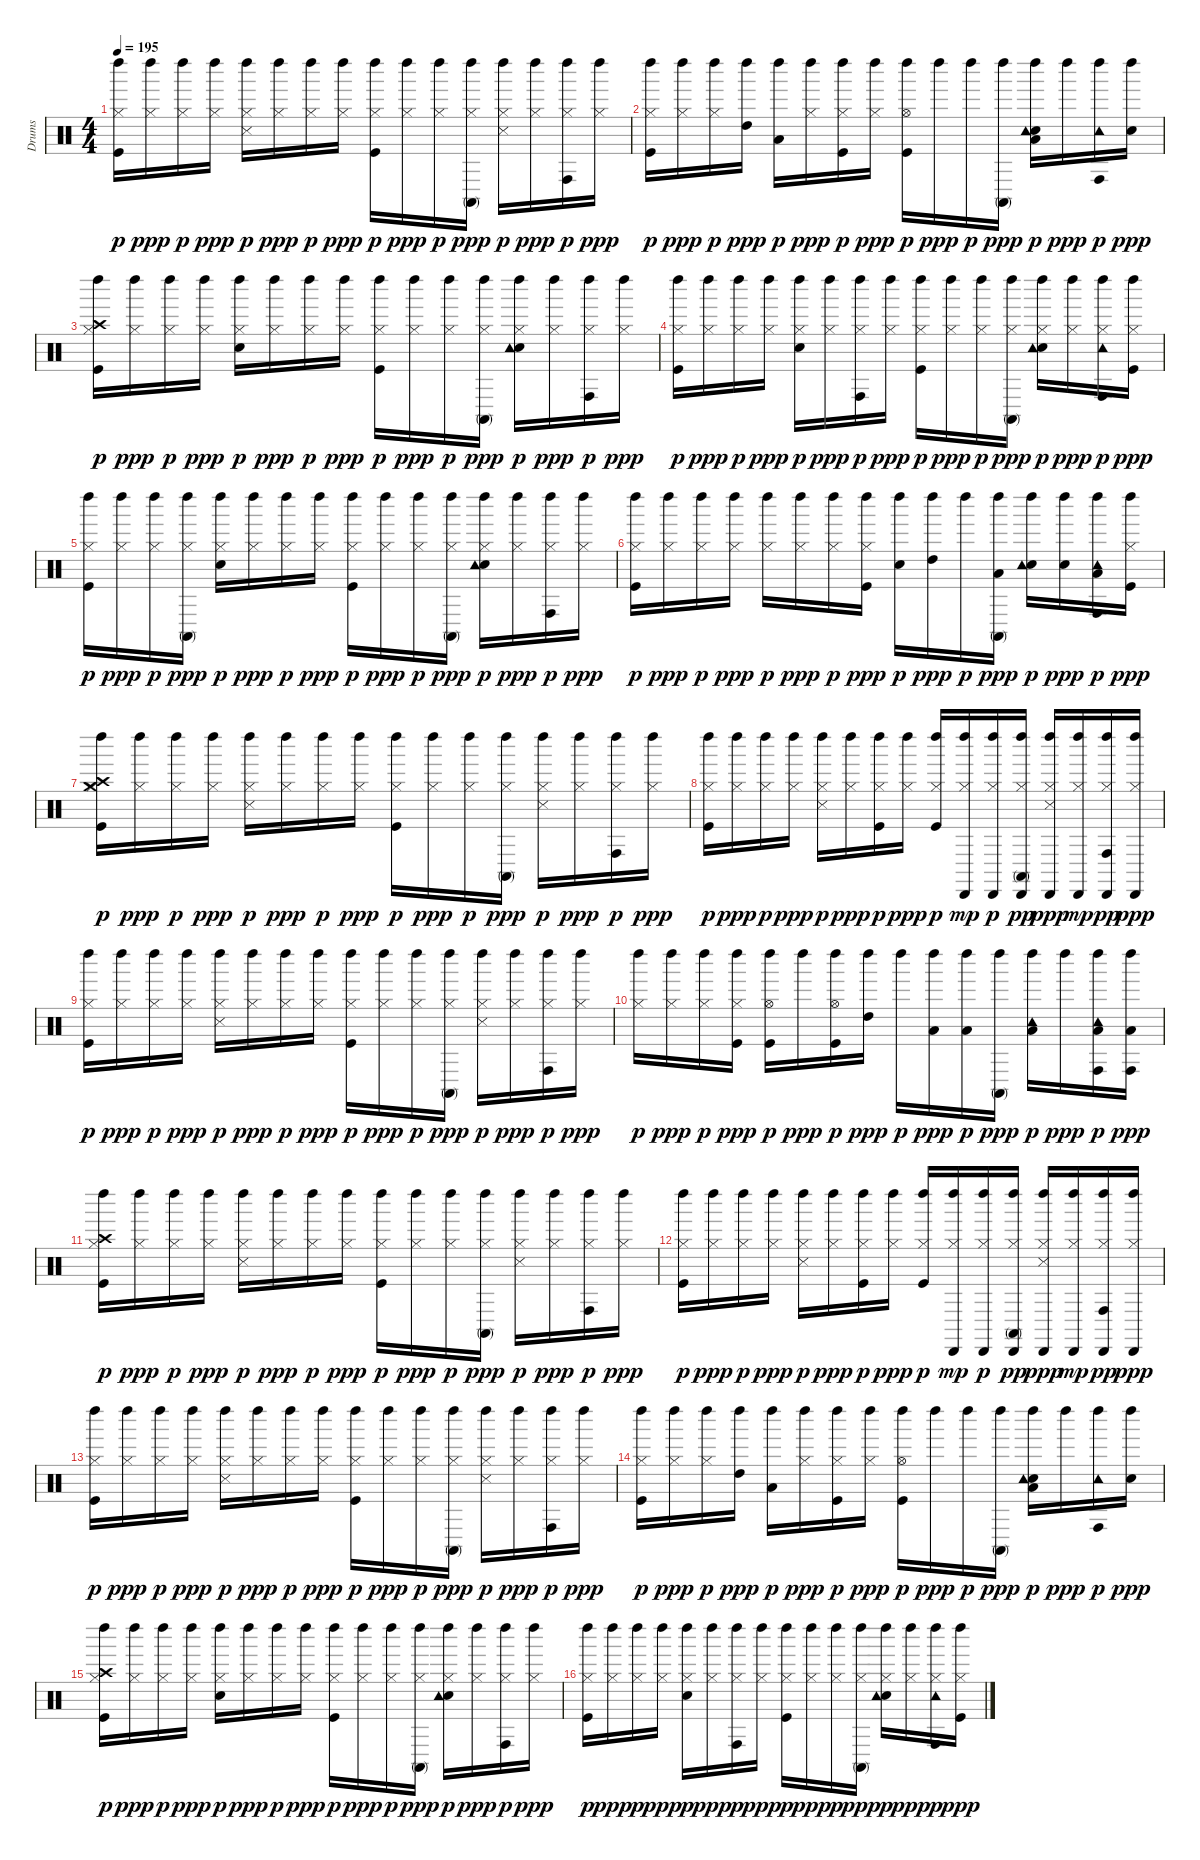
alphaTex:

\track ("Drums" "Drums") {instrument percussion}
\staff {score}
\articulation defaults
\ts (4 4)
\tempo 195
\clef neutral
\ks c
("Kick (hit)" "Hi-Hat (closed)" "Left Maraca (hit)").16{dy p} ("Hi-Hat (closed)" "Left Maraca (hit)").16{dy ppp} ("Hi-Hat (closed)" "Left Maraca (hit)").16{dy p} ("Hi-Hat (closed)" "Left Maraca (hit)").16{dy ppp} ("Hi-Hat (closed)" "Snare (side stick) 3" "Left Maraca (hit)").16{dy p} ("Hi-Hat (closed)" "Left Maraca (hit)").16{dy ppp} ("Hi-Hat (closed)" "Left Maraca (hit)").16{dy p} ("Hi-Hat (closed)" "Left Maraca (hit)").16{dy ppp} ("Kick (hit)" "Hi-Hat (closed)" "Left Maraca (hit)").16{dy p} ("Hi-Hat (closed)" "Left Maraca (hit)").16{dy ppp} ("Hi-Hat (closed)" "Left Maraca (hit)").16{dy p} ("Hi-Hat (closed)" "Conga high (mute)" "Left Maraca (hit)").16{dy ppp} ("Hi-Hat (closed)" "Snare (side stick) 3" "Left Maraca (hit)").16{dy p} ("Hi-Hat (closed)" "Left Maraca (hit)").16{dy ppp} ("Hi-Hat (closed)" "Conga high (hit)" "Left Maraca (hit)").16{dy p} ("Hi-Hat (closed)" "Left Maraca (hit)").16{dy ppp} |
("Kick (hit)" "Hi-Hat (closed)" "Left Maraca (hit)").16{dy p} ("Hi-Hat (closed)" "Left Maraca (hit)").16{dy ppp} ("Hi-Hat (closed)" "Left Maraca (hit)").16{dy p} ("High Tom (hit)" "Left Maraca (hit)").16{dy ppp} ("Low Tom (hit)" "Left Maraca (hit)").16{dy p} ("Hi-Hat (closed)" "Left Maraca (hit)").16{dy ppp} ("Kick (hit)" "Hi-Hat (closed)" "Left Maraca (hit)").16{dy p} ("Hi-Hat (closed)" "Left Maraca (hit)").16{dy ppp} ("Kick (hit)" "Hi-Hat (open)" "Left Maraca (hit)").16{dy p} "Left Maraca (hit)".16{dy ppp} "Left Maraca (hit)".16{dy p} ("Conga high (mute)" "Left Maraca (hit)").16{dy ppp} ("Snare (hit) 2" "Low Floor Tom (hit)" "Tambourine (hit)" "Left Maraca (hit)").16{dy p} "Left Maraca (hit)".16{dy ppp} ("Conga high (hit)" "Tambourine (hit)" "Left Maraca (hit)").16{dy p} ("Snare (hit) 2" "Left Maraca (hit)").16{dy ppp} |
("Kick (hit)" "Hi-Hat (closed)" "Crash high (hit)" "Left Maraca (hit)").16{dy p} ("Hi-Hat (closed)" "Left Maraca (hit)").16{dy ppp} ("Hi-Hat (closed)" "Left Maraca (hit)").16{dy p} ("Hi-Hat (closed)" "Left Maraca (hit)").16{dy ppp} ("Snare (hit) 2" "Hi-Hat (closed)" "Left Maraca (hit)").16{dy p} ("Hi-Hat (closed)" "Left Maraca (hit)").16{dy ppp} ("Hi-Hat (closed)" "Left Maraca (hit)").16{dy p} ("Hi-Hat (closed)" "Left Maraca (hit)").16{dy ppp} ("Kick (hit)" "Hi-Hat (closed)" "Left Maraca (hit)").16{dy p} ("Hi-Hat (closed)" "Left Maraca (hit)").16{dy ppp} ("Hi-Hat (closed)" "Left Maraca (hit)").16{dy p} ("Hi-Hat (closed)" "Conga high (mute)" "Left Maraca (hit)").16{dy ppp} ("Snare (hit) 2" "Hi-Hat (closed)" "Tambourine (hit)" "Left Maraca (hit)").16{dy p} ("Hi-Hat (closed)" "Left Maraca (hit)").16{dy ppp} ("Hi-Hat (closed)" "Conga high (hit)" "Left Maraca (hit)").16{dy p} ("Hi-Hat (closed)" "Left Maraca (hit)").16{dy ppp} |
("Kick (hit)" "Hi-Hat (closed)" "Left Maraca (hit)").16{dy p} ("Hi-Hat (closed)" "Left Maraca (hit)").16{dy ppp} ("Hi-Hat (closed)" "Left Maraca (hit)").16{dy p} ("Hi-Hat (closed)" "Left Maraca (hit)").16{dy ppp} ("Snare (hit) 2" "Hi-Hat (closed)" "Left Maraca (hit)").16{dy p} ("Hi-Hat (closed)" "Left Maraca (hit)").16{dy ppp} ("Hi-Hat (closed)" "Conga high (hit)" "Left Maraca (hit)").16{dy p} ("Hi-Hat (closed)" "Left Maraca (hit)").16{dy ppp} ("Kick (hit)" "Hi-Hat (closed)" "Left Maraca (hit)").16{dy p} ("Hi-Hat (closed)" "Left Maraca (hit)").16{dy ppp} ("Hi-Hat (closed)" "Left Maraca (hit)").16{dy p} ("Hi-Hat (closed)" "Conga high (mute)" "Left Maraca (hit)").16{dy ppp} ("Snare (hit) 2" "Hi-Hat (closed)" "Tambourine (hit)" "Left Maraca (hit)").16{dy p} ("Hi-Hat (closed)" "Left Maraca (hit)").16{dy ppp} ("Hi-Hat (closed)" "Conga high (hit)" "Tambourine (hit)" "Left Maraca (hit)").16{dy p} ("Kick (hit)" "Hi-Hat (closed)" "Left Maraca (hit)").16{dy ppp} |
("Kick (hit)" "Hi-Hat (closed)" "Left Maraca (hit)").16{dy p} ("Hi-Hat (closed)" "Left Maraca (hit)").16{dy ppp} ("Hi-Hat (closed)" "Left Maraca (hit)").16{dy p} ("Hi-Hat (closed)" "Conga high (mute)" "Left Maraca (hit)").16{dy ppp} ("Snare (hit) 2" "Hi-Hat (closed)" "Left Maraca (hit)").16{dy p} ("Hi-Hat (closed)" "Left Maraca (hit)").16{dy ppp} ("Hi-Hat (closed)" "Left Maraca (hit)").16{dy p} ("Hi-Hat (closed)" "Left Maraca (hit)").16{dy ppp} ("Kick (hit)" "Hi-Hat (closed)" "Left Maraca (hit)").16{dy p} ("Hi-Hat (closed)" "Left Maraca (hit)").16{dy ppp} ("Hi-Hat (closed)" "Left Maraca (hit)").16{dy p} ("Hi-Hat (closed)" "Conga high (mute)" "Left Maraca (hit)").16{dy ppp} ("Snare (hit) 2" "Hi-Hat (closed)" "Tambourine (hit)" "Left Maraca (hit)").16{dy p} ("Hi-Hat (closed)" "Left Maraca (hit)").16{dy ppp} ("Hi-Hat (closed)" "Conga high (hit)" "Left Maraca (hit)").16{dy p} ("Hi-Hat (closed)" "Left Maraca (hit)").16{dy ppp} |
("Kick (hit)" "Hi-Hat (closed)" "Left Maraca (hit)").16{dy p} ("Hi-Hat (closed)" "Left Maraca (hit)").16{dy ppp} ("Hi-Hat (closed)" "Left Maraca (hit)").16{dy p} ("Hi-Hat (closed)" "Left Maraca (hit)").16{dy ppp} ("Hi-Hat (closed)" "Left Maraca (hit)").16{dy p} ("Hi-Hat (closed)" "Left Maraca (hit)").16{dy ppp} ("Hi-Hat (closed)" "Left Maraca (hit)").16{dy p} ("Kick (hit)" "Hi-Hat (closed)" "Left Maraca (hit)").16{dy ppp} ("Snare (hit) 2" "Left Maraca (hit)").16{dy p} ("High Tom (hit)" "Left Maraca (hit)").16{dy ppp} "Left Maraca (hit)".16{dy p} ("Low Tom (hit)" "Conga high (mute)" "Left Maraca (hit)").16{dy ppp} ("Snare (hit) 2" "Tambourine (hit)" "Left Maraca (hit)").16{dy p} ("Snare (hit) 2" "Left Maraca (hit)").16{dy ppp} ("Low Floor Tom (hit)" "Conga high (hit)" "Tambourine (hit)" "Left Maraca (hit)").16{dy p} ("Kick (hit)" "Hi-Hat (closed)" "Left Maraca (hit)").16{dy ppp} |
("Crash medium (hit)" "Kick (hit)" "Hi-Hat (closed)" "Crash high (hit)" "Left Maraca (hit)").16{dy p} ("Hi-Hat (closed)" "Left Maraca (hit)").16{dy ppp} ("Hi-Hat (closed)" "Left Maraca (hit)").16{dy p} ("Hi-Hat (closed)" "Left Maraca (hit)").16{dy ppp} ("Hi-Hat (closed)" "Snare (side stick) 3" "Left Maraca (hit)").16{dy p} ("Hi-Hat (closed)" "Left Maraca (hit)").16{dy ppp} ("Hi-Hat (closed)" "Left Maraca (hit)").16{dy p} ("Hi-Hat (closed)" "Left Maraca (hit)").16{dy ppp} ("Kick (hit)" "Hi-Hat (closed)" "Left Maraca (hit)").16{dy p} ("Hi-Hat (closed)" "Left Maraca (hit)").16{dy ppp} ("Hi-Hat (closed)" "Left Maraca (hit)").16{dy p} ("Hi-Hat (closed)" "Conga high (mute)" "Left Maraca (hit)").16{dy ppp} ("Hi-Hat (closed)" "Snare (side stick) 3" "Left Maraca (hit)").16{dy p} ("Hi-Hat (closed)" "Left Maraca (hit)").16{dy ppp} ("Hi-Hat (closed)" "Conga high (hit)" "Left Maraca (hit)").16{dy p} ("Hi-Hat (closed)" "Left Maraca (hit)").16{dy ppp} |
("Kick (hit)" "Hi-Hat (closed)" "Left Maraca (hit)").16{dy p} ("Hi-Hat (closed)" "Left Maraca (hit)").16{dy ppp} ("Hi-Hat (closed)" "Left Maraca (hit)").16{dy p} ("Hi-Hat (closed)" "Left Maraca (hit)").16{dy ppp} ("Hi-Hat (closed)" "Snare (side stick) 3" "Left Maraca (hit)").16{dy p} ("Hi-Hat (closed)" "Left Maraca (hit)").16{dy ppp} ("Kick (hit)" "Hi-Hat (closed)" "Left Maraca (hit)").16{dy p} ("Hi-Hat (closed)" "Left Maraca (hit)").16{dy ppp} ("Kick (hit)" "Hi-Hat (closed)" "Left Maraca (hit)").16{dy p} ("Hi-Hat (closed)" "Left Maraca (hit)" "Cabasa (hit)").16{dy mp} ("Hi-Hat (closed)" "Left Maraca (hit)" "Cabasa (hit)").16{dy p} ("Hi-Hat (closed)" "Conga high (mute)" "Left Maraca (hit)" "Cabasa (hit)").16{dy pp} ("Hi-Hat (closed)" "Snare (side stick) 3" "Left Maraca (hit)" "Cabasa (hit)").16{dy ppp} ("Hi-Hat (closed)" "Left Maraca (hit)" "Cabasa (hit)").16{dy mp} ("Hi-Hat (closed)" "Conga high (hit)" "Left Maraca (hit)" "Cabasa (hit)").16{dy pp} ("Hi-Hat (closed)" "Left Maraca (hit)" "Cabasa (hit)").16{dy ppp} |
("Kick (hit)" "Hi-Hat (closed)" "Left Maraca (hit)").16{dy p} ("Hi-Hat (closed)" "Left Maraca (hit)").16{dy ppp} ("Hi-Hat (closed)" "Left Maraca (hit)").16{dy p} ("Hi-Hat (closed)" "Left Maraca (hit)").16{dy ppp} ("Hi-Hat (closed)" "Snare (side stick) 3" "Left Maraca (hit)").16{dy p} ("Hi-Hat (closed)" "Left Maraca (hit)").16{dy ppp} ("Hi-Hat (closed)" "Left Maraca (hit)").16{dy p} ("Hi-Hat (closed)" "Left Maraca (hit)").16{dy ppp} ("Kick (hit)" "Hi-Hat (closed)" "Left Maraca (hit)").16{dy p} ("Hi-Hat (closed)" "Left Maraca (hit)").16{dy ppp} ("Hi-Hat (closed)" "Left Maraca (hit)").16{dy p} ("Hi-Hat (closed)" "Conga high (mute)" "Left Maraca (hit)").16{dy ppp} ("Hi-Hat (closed)" "Snare (side stick) 3" "Left Maraca (hit)").16{dy p} ("Hi-Hat (closed)" "Left Maraca (hit)").16{dy ppp} ("Hi-Hat (closed)" "Conga high (hit)" "Left Maraca (hit)").16{dy p} ("Hi-Hat (closed)" "Left Maraca (hit)").16{dy ppp} |
("Hi-Hat (closed)" "Left Maraca (hit)").16{dy p} ("Hi-Hat (closed)" "Left Maraca (hit)").16{dy ppp} ("Hi-Hat (closed)" "Left Maraca (hit)").16{dy p} ("Kick (hit)" "Hi-Hat (closed)" "Left Maraca (hit)").16{dy ppp} ("Kick (hit)" "Hi-Hat (open)" "Left Maraca (hit)").16{dy p} "Left Maraca (hit)".16{dy ppp} ("Kick (hit)" "Hi-Hat (open)" "Left Maraca (hit)").16{dy p} ("High Tom (hit)" "Left Maraca (hit)").16{dy ppp} "Left Maraca (hit)".16{dy p} ("Low Tom (hit)" "Left Maraca (hit)").16{dy ppp} ("Low Tom (hit)" "Left Maraca (hit)").16{dy p} ("Conga high (mute)" "Left Maraca (hit)").16{dy ppp} ("Low Tom (hit)" "Tambourine (hit)" "Left Maraca (hit)").16{dy p} "Left Maraca (hit)".16{dy ppp} ("Low Floor Tom (hit)" "Conga high (hit)" "Tambourine (hit)" "Left Maraca (hit)").16{dy p} ("Low Floor Tom (hit)" "Conga high (hit)" "Left Maraca (hit)").16{dy ppp} |
("Kick (hit)" "Hi-Hat (closed)" "Crash high (hit)" "Left Maraca (hit)").16{dy p} ("Hi-Hat (closed)" "Left Maraca (hit)").16{dy ppp} ("Hi-Hat (closed)" "Left Maraca (hit)").16{dy p} ("Hi-Hat (closed)" "Left Maraca (hit)").16{dy ppp} ("Hi-Hat (closed)" "Snare (side stick) 3" "Left Maraca (hit)").16{dy p} ("Hi-Hat (closed)" "Left Maraca (hit)").16{dy ppp} ("Hi-Hat (closed)" "Left Maraca (hit)").16{dy p} ("Hi-Hat (closed)" "Left Maraca (hit)").16{dy ppp} ("Kick (hit)" "Hi-Hat (closed)" "Left Maraca (hit)").16{dy p} ("Hi-Hat (closed)" "Left Maraca (hit)").16{dy ppp} ("Hi-Hat (closed)" "Left Maraca (hit)").16{dy p} ("Hi-Hat (closed)" "Conga high (mute)" "Left Maraca (hit)").16{dy ppp} ("Hi-Hat (closed)" "Snare (side stick) 3" "Left Maraca (hit)").16{dy p} ("Hi-Hat (closed)" "Left Maraca (hit)").16{dy ppp} ("Hi-Hat (closed)" "Conga high (hit)" "Left Maraca (hit)").16{dy p} ("Hi-Hat (closed)" "Left Maraca (hit)").16{dy ppp} |
("Kick (hit)" "Hi-Hat (closed)" "Left Maraca (hit)").16{dy p} ("Hi-Hat (closed)" "Left Maraca (hit)").16{dy ppp} ("Hi-Hat (closed)" "Left Maraca (hit)").16{dy p} ("Hi-Hat (closed)" "Left Maraca (hit)").16{dy ppp} ("Hi-Hat (closed)" "Snare (side stick) 3" "Left Maraca (hit)").16{dy p} ("Hi-Hat (closed)" "Left Maraca (hit)").16{dy ppp} ("Kick (hit)" "Hi-Hat (closed)" "Left Maraca (hit)").16{dy p} ("Hi-Hat (closed)" "Left Maraca (hit)").16{dy ppp} ("Kick (hit)" "Hi-Hat (closed)" "Left Maraca (hit)").16{dy p} ("Hi-Hat (closed)" "Left Maraca (hit)" "Cabasa (hit)").16{dy mp} ("Hi-Hat (closed)" "Left Maraca (hit)" "Cabasa (hit)").16{dy p} ("Hi-Hat (closed)" "Conga high (mute)" "Left Maraca (hit)" "Cabasa (hit)").16{dy pp} ("Hi-Hat (closed)" "Snare (side stick) 3" "Left Maraca (hit)" "Cabasa (hit)").16{dy ppp} ("Hi-Hat (closed)" "Left Maraca (hit)" "Cabasa (hit)").16{dy mp} ("Hi-Hat (closed)" "Conga high (hit)" "Left Maraca (hit)" "Cabasa (hit)").16{dy pp} ("Hi-Hat (closed)" "Left Maraca (hit)" "Cabasa (hit)").16{dy ppp} |
("Kick (hit)" "Hi-Hat (closed)" "Left Maraca (hit)").16{dy p} ("Hi-Hat (closed)" "Left Maraca (hit)").16{dy ppp} ("Hi-Hat (closed)" "Left Maraca (hit)").16{dy p} ("Hi-Hat (closed)" "Left Maraca (hit)").16{dy ppp} ("Hi-Hat (closed)" "Snare (side stick) 3" "Left Maraca (hit)").16{dy p} ("Hi-Hat (closed)" "Left Maraca (hit)").16{dy ppp} ("Hi-Hat (closed)" "Left Maraca (hit)").16{dy p} ("Hi-Hat (closed)" "Left Maraca (hit)").16{dy ppp} ("Kick (hit)" "Hi-Hat (closed)" "Left Maraca (hit)").16{dy p} ("Hi-Hat (closed)" "Left Maraca (hit)").16{dy ppp} ("Hi-Hat (closed)" "Left Maraca (hit)").16{dy p} ("Hi-Hat (closed)" "Conga high (mute)" "Left Maraca (hit)").16{dy ppp} ("Hi-Hat (closed)" "Snare (side stick) 3" "Left Maraca (hit)").16{dy p} ("Hi-Hat (closed)" "Left Maraca (hit)").16{dy ppp} ("Hi-Hat (closed)" "Conga high (hit)" "Left Maraca (hit)").16{dy p} ("Hi-Hat (closed)" "Left Maraca (hit)").16{dy ppp} |
("Kick (hit)" "Hi-Hat (closed)" "Left Maraca (hit)").16{dy p} ("Hi-Hat (closed)" "Left Maraca (hit)").16{dy ppp} ("Hi-Hat (closed)" "Left Maraca (hit)").16{dy p} ("High Tom (hit)" "Left Maraca (hit)").16{dy ppp} ("Low Tom (hit)" "Left Maraca (hit)").16{dy p} ("Hi-Hat (closed)" "Left Maraca (hit)").16{dy ppp} ("Kick (hit)" "Hi-Hat (closed)" "Left Maraca (hit)").16{dy p} ("Hi-Hat (closed)" "Left Maraca (hit)").16{dy ppp} ("Kick (hit)" "Hi-Hat (open)" "Left Maraca (hit)").16{dy p} "Left Maraca (hit)".16{dy ppp} "Left Maraca (hit)".16{dy p} ("Conga high (mute)" "Left Maraca (hit)").16{dy ppp} ("Snare (hit) 2" "Low Floor Tom (hit)" "Tambourine (hit)" "Left Maraca (hit)").16{dy p} "Left Maraca (hit)".16{dy ppp} ("Conga high (hit)" "Tambourine (hit)" "Left Maraca (hit)").16{dy p} ("Snare (hit) 2" "Left Maraca (hit)").16{dy ppp} |
("Kick (hit)" "Hi-Hat (closed)" "Crash high (hit)" "Left Maraca (hit)").16{dy p} ("Hi-Hat (closed)" "Left Maraca (hit)").16{dy ppp} ("Hi-Hat (closed)" "Left Maraca (hit)").16{dy p} ("Hi-Hat (closed)" "Left Maraca (hit)").16{dy ppp} ("Snare (hit) 2" "Hi-Hat (closed)" "Left Maraca (hit)").16{dy p} ("Hi-Hat (closed)" "Left Maraca (hit)").16{dy ppp} ("Hi-Hat (closed)" "Left Maraca (hit)").16{dy p} ("Hi-Hat (closed)" "Left Maraca (hit)").16{dy ppp} ("Kick (hit)" "Hi-Hat (closed)" "Left Maraca (hit)").16{dy p} ("Hi-Hat (closed)" "Left Maraca (hit)").16{dy ppp} ("Hi-Hat (closed)" "Left Maraca (hit)").16{dy p} ("Hi-Hat (closed)" "Conga high (mute)" "Left Maraca (hit)").16{dy ppp} ("Snare (hit) 2" "Hi-Hat (closed)" "Tambourine (hit)" "Left Maraca (hit)").16{dy p} ("Hi-Hat (closed)" "Left Maraca (hit)").16{dy ppp} ("Hi-Hat (closed)" "Conga high (hit)" "Left Maraca (hit)").16{dy p} ("Hi-Hat (closed)" "Left Maraca (hit)").16{dy ppp} |
("Kick (hit)" "Hi-Hat (closed)" "Left Maraca (hit)").16{dy p} ("Hi-Hat (closed)" "Left Maraca (hit)").16{dy ppp} ("Hi-Hat (closed)" "Left Maraca (hit)").16{dy p} ("Hi-Hat (closed)" "Left Maraca (hit)").16{dy ppp} ("Snare (hit) 2" "Hi-Hat (closed)" "Left Maraca (hit)").16{dy p} ("Hi-Hat (closed)" "Left Maraca (hit)").16{dy ppp} ("Hi-Hat (closed)" "Conga high (hit)" "Left Maraca (hit)").16{dy p} ("Hi-Hat (closed)" "Left Maraca (hit)").16{dy ppp} ("Kick (hit)" "Hi-Hat (closed)" "Left Maraca (hit)").16{dy p} ("Hi-Hat (closed)" "Left Maraca (hit)").16{dy ppp} ("Hi-Hat (closed)" "Left Maraca (hit)").16{dy p} ("Hi-Hat (closed)" "Conga high (mute)" "Left Maraca (hit)").16{dy ppp} ("Snare (hit) 2" "Hi-Hat (closed)" "Tambourine (hit)" "Left Maraca (hit)").16{dy p} ("Hi-Hat (closed)" "Left Maraca (hit)").16{dy ppp} ("Hi-Hat (closed)" "Conga high (hit)" "Tambourine (hit)" "Left Maraca (hit)").16{dy p} ("Kick (hit)" "Hi-Hat (closed)" "Left Maraca (hit)").16{dy ppp}
